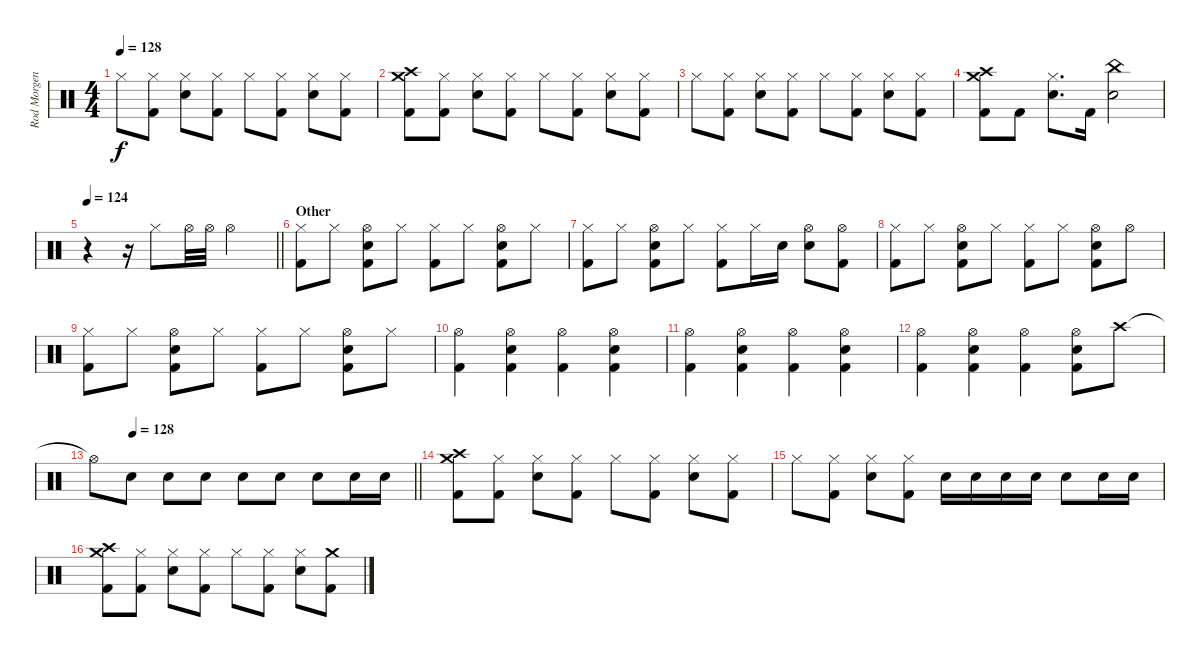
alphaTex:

\track ("Rod Morgenstein" "Rod Morgen") {instrument percussion}
\staff {score}
\articulation defaults
\ts (4 4)
\tempo 128
\clef neutral
\ks c "Hi-Hat (closed)".8{dy f}
("Hi-Hat (closed)" "Kick (hit) 2").8 ("Hi-Hat (closed)" "Snare (hit) 2").8 ("Hi-Hat (closed)" "Kick (hit) 2").8 "Hi-Hat (closed)".8 ("Hi-Hat (closed)" "Kick (hit) 2").8 ("Hi-Hat (closed)" "Snare (hit) 2").8 ("Hi-Hat (closed)" "Kick (hit) 2").8 |
("Crash medium (hit)" "Crash high (hit)" "Kick (hit) 2").8 ("Hi-Hat (closed)" "Kick (hit) 2").8 ("Hi-Hat (closed)" "Snare (hit) 2").8 ("Hi-Hat (closed)" "Kick (hit) 2").8 "Hi-Hat (closed)".8 ("Hi-Hat (closed)" "Kick (hit) 2").8 ("Hi-Hat (closed)" "Snare (hit) 2").8 ("Hi-Hat (closed)" "Kick (hit) 2").8 |
"Hi-Hat (closed)".8 ("Hi-Hat (closed)" "Kick (hit) 2").8 ("Hi-Hat (closed)" "Snare (hit) 2").8 ("Hi-Hat (closed)" "Kick (hit) 2").8 "Hi-Hat (closed)".8 ("Hi-Hat (closed)" "Kick (hit) 2").8 ("Hi-Hat (closed)" "Snare (hit) 2").8 ("Hi-Hat (closed)" "Kick (hit) 2").8 |
("Crash medium (hit)" "Crash high (hit)" "Kick (hit) 2").8 "Kick (hit) 2".8 ("Hi-Hat (closed)" "Snare (hit) 2").8{d} "Kick (hit) 2".16 ("China (hit)" "Snare (hit) 2").2 |
\tempo 124
\barLineRight lightlight
r.4 r.16 "Hi-Hat (closed)".8 "Hi-Hat (open)".32 "Hi-Hat (open)".32 "Hi-Hat (open)".2 |
\section ("" "Other")
("Hi-Hat (closed)" "Kick (hit) 2").8 "Hi-Hat (closed)".8 ("Hi-Hat (open)" "Snare (hit) 2" "Kick (hit) 2").8 "Hi-Hat (closed)".8 ("Hi-Hat (closed)" "Kick (hit) 2").8 "Hi-Hat (closed)".8 ("Hi-Hat (open)" "Snare (hit) 2" "Kick (hit) 2").8 "Hi-Hat (closed)".8 |
("Hi-Hat (closed)" "Kick (hit) 2").8 "Hi-Hat (closed)".8 ("Hi-Hat (open)" "Snare (hit) 2" "Kick (hit) 2").8 "Hi-Hat (closed)".8 ("Hi-Hat (closed)" "Kick (hit) 2").8 "Hi-Hat (closed)".16 "Snare (hit) 2".16 ("Hi-Hat (open)" "Snare (hit) 2").8 ("Hi-Hat (open)" "Kick (hit) 2").8 |
("Hi-Hat (closed)" "Kick (hit) 2").8 "Hi-Hat (closed)".8 ("Hi-Hat (open)" "Snare (hit) 2" "Kick (hit) 2").8 "Hi-Hat (closed)".8 ("Hi-Hat (closed)" "Kick (hit) 2").8 "Hi-Hat (closed)".8 ("Hi-Hat (open)" "Snare (hit) 2" "Kick (hit) 2").8 "Hi-Hat (open)".8 |
("Hi-Hat (closed)" "Kick (hit) 2").8 "Hi-Hat (closed)".8 ("Hi-Hat (open)" "Snare (hit) 2" "Kick (hit) 2").8 "Hi-Hat (closed)".8 ("Hi-Hat (closed)" "Kick (hit) 2").8 "Hi-Hat (closed)".8 ("Hi-Hat (open)" "Snare (hit) 2" "Kick (hit) 2").8 "Hi-Hat (closed)".8 |
("Hi-Hat (open)" "Kick (hit) 2").4 ("Hi-Hat (open)" "Snare (hit) 2" "Kick (hit) 2").4 ("Hi-Hat (open)" "Kick (hit) 2").4 ("Hi-Hat (open)" "Snare (hit) 2" "Kick (hit) 2").4 |
("Hi-Hat (open)" "Kick (hit) 2").4 ("Hi-Hat (open)" "Snare (hit) 2" "Kick (hit) 2").4 ("Hi-Hat (open)" "Kick (hit) 2").4 ("Hi-Hat (open)" "Snare (hit) 2" "Kick (hit) 2").4 |
("Hi-Hat (open)" "Kick (hit) 2").4 ("Hi-Hat (open)" "Snare (hit) 2" "Kick (hit) 2").4 ("Hi-Hat (open)" "Kick (hit) 2").4 ("Hi-Hat (open)" "Snare (hit) 2" "Kick (hit) 2").8 "Crash high (hit)".8 |
\tempo (128 0.125)
\barLineRight lightlight "Hi-Hat (open)"{t}.8 "Snare (hit) 2".8 "Snare (hit) 2".8 "Snare (hit) 2".8 "Snare (hit) 2".8 "Snare (hit) 2".8 "Snare (hit) 2".8 "Snare (hit) 2".16 "Snare (hit) 2".16
|
\section ("" "")
("Crash medium (hit)" "Crash high (hit)" "Kick (hit) 2").8 ("Hi-Hat (closed)" "Kick (hit) 2").8 ("Hi-Hat (closed)" "Snare (hit) 2").8 ("Hi-Hat (closed)" "Kick (hit) 2").8 "Hi-Hat (closed)".8 ("Hi-Hat (closed)" "Kick (hit) 2").8 ("Hi-Hat (closed)" "Snare (hit) 2").8 ("Hi-Hat (closed)" "Kick (hit) 2").8 |
"Hi-Hat (closed)".8 ("Hi-Hat (closed)" "Kick (hit) 2").8 ("Hi-Hat (closed)" "Snare (hit) 2").8 ("Hi-Hat (closed)" "Kick (hit) 2").8 "Snare (hit) 2".16 "Snare (hit) 2".16 "Snare (hit) 2".16 "Snare (hit) 2".16 "Snare (hit) 2".8 "Snare (hit) 2".16 "Snare (hit) 2".16 |
("Crash medium (hit)" "Crash high (hit)" "Kick (hit) 2").8 ("Hi-Hat (closed)" "Kick (hit) 2").8 ("Hi-Hat (closed)" "Snare (hit) 2").8 ("Hi-Hat (closed)" "Kick (hit) 2").8 "Hi-Hat (closed)".8 ("Hi-Hat (closed)" "Kick (hit) 2").8 ("Hi-Hat (closed)" "Snare (hit) 2").8 ("Crash medium (hit)" "Kick (hit) 2").8
